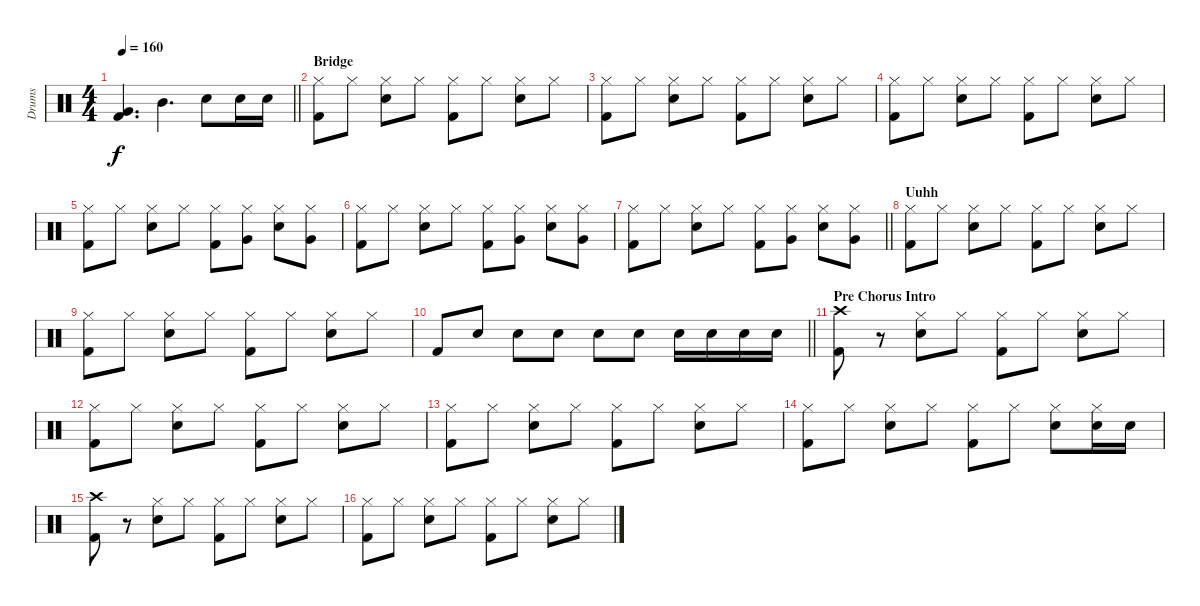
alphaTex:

\track ("Drums" "Drums") {instrument percussion}
\staff {score}
\articulation defaults
\ts (4 4)
\tempo 160
\clef neutral
\barLineRight lightlight
\ks c
("Very Low Tom (hit)" "Kick (hit) 2").4{d dy f} "Mid Tom (hit)".4{d} "Electric Snare (hit)".8 "Electric Snare (hit)".16 "Electric Snare (hit)".16 |
\section ("" "Bridge")
("Hi-Hat (closed)" "Kick (hit) 2").8 "Hi-Hat (closed)".8 ("Hi-Hat (closed)" "Electric Snare (hit)").8 "Hi-Hat (closed)".8 ("Hi-Hat (closed)" "Kick (hit) 2").8 "Hi-Hat (closed)".8 ("Hi-Hat (closed)" "Electric Snare (hit)").8 "Hi-Hat (closed)".8 |
("Hi-Hat (closed)" "Kick (hit) 2").8 "Hi-Hat (closed)".8 ("Hi-Hat (closed)" "Electric Snare (hit)").8 "Hi-Hat (closed)".8 ("Hi-Hat (closed)" "Kick (hit) 2").8 "Hi-Hat (closed)".8 ("Hi-Hat (closed)" "Electric Snare (hit)").8 "Hi-Hat (closed)".8 |
("Hi-Hat (closed)" "Kick (hit) 2").8 "Hi-Hat (closed)".8 ("Hi-Hat (closed)" "Electric Snare (hit)").8 "Hi-Hat (closed)".8 ("Hi-Hat (closed)" "Kick (hit) 2").8 "Hi-Hat (closed)".8 ("Hi-Hat (closed)" "Electric Snare (hit)").8 "Hi-Hat (closed)".8 |
("Hi-Hat (closed)" "Kick (hit) 2").8 "Hi-Hat (closed)".8 ("Hi-Hat (closed)" "Electric Snare (hit)").8 "Hi-Hat (closed)".8 ("Hi-Hat (closed)" "Kick (hit) 2").8 ("Hi-Hat (closed)" "Very Low Tom (hit)").8 ("Hi-Hat (closed)" "Electric Snare (hit)").8 ("Hi-Hat (closed)" "Very Low Tom (hit)").8 |
("Hi-Hat (closed)" "Kick (hit) 2").8 "Hi-Hat (closed)".8 ("Hi-Hat (closed)" "Electric Snare (hit)").8 "Hi-Hat (closed)".8 ("Hi-Hat (closed)" "Kick (hit) 2").8 ("Hi-Hat (closed)" "Very Low Tom (hit)").8 ("Hi-Hat (closed)" "Electric Snare (hit)").8 ("Hi-Hat (closed)" "Very Low Tom (hit)").8 |
\barLineRight lightlight
("Hi-Hat (closed)" "Kick (hit) 2").8 "Hi-Hat (closed)".8 ("Hi-Hat (closed)" "Electric Snare (hit)").8 "Hi-Hat (closed)".8 ("Hi-Hat (closed)" "Kick (hit) 2").8 ("Hi-Hat (closed)" "Very Low Tom (hit)").8 ("Hi-Hat (closed)" "Electric Snare (hit)").8 ("Hi-Hat (closed)" "Very Low Tom (hit)").8 |
\section ("" "Uuhh")
("Hi-Hat (closed)" "Kick (hit) 2").8 "Hi-Hat (closed)".8 ("Hi-Hat (closed)" "Electric Snare (hit)").8 "Hi-Hat (closed)".8 ("Hi-Hat (closed)" "Kick (hit) 2").8 "Hi-Hat (closed)".8 ("Hi-Hat (closed)" "Electric Snare (hit)").8 "Hi-Hat (closed)".8 |
("Hi-Hat (closed)" "Kick (hit) 2").8 "Hi-Hat (closed)".8 ("Hi-Hat (closed)" "Electric Snare (hit)").8 "Hi-Hat (closed)".8 ("Hi-Hat (closed)" "Kick (hit) 2").8 "Hi-Hat (closed)".8 ("Hi-Hat (closed)" "Electric Snare (hit)").8 "Hi-Hat (closed)".8 |
\barLineRight lightlight "Kick (hit) 2".8 "Electric Snare (hit)".8 "Electric Snare (hit)".8 "Electric Snare (hit)".8 "Electric Snare (hit)".8 "Electric Snare (hit)".8 "Electric Snare (hit)".16 "Electric Snare (hit)".16 "Electric Snare (hit)".16 "Electric Snare (hit)".16
|
\section ("" "Pre Chorus Intro")
("Crash high (hit)" "Kick (hit) 2").8 r.8 ("Hi-Hat (closed)" "Electric Snare (hit)").8 "Hi-Hat (closed)".8 ("Hi-Hat (closed)" "Kick (hit) 2").8 "Hi-Hat (closed)".8 ("Hi-Hat (closed)" "Electric Snare (hit)").8 "Hi-Hat (closed)".8 |
("Hi-Hat (closed)" "Kick (hit) 2").8 "Hi-Hat (closed)".8 ("Hi-Hat (closed)" "Electric Snare (hit)").8 "Hi-Hat (closed)".8 ("Hi-Hat (closed)" "Kick (hit) 2").8 "Hi-Hat (closed)".8 ("Hi-Hat (closed)" "Electric Snare (hit)").8 "Hi-Hat (closed)".8 |
("Hi-Hat (closed)" "Kick (hit) 2").8 "Hi-Hat (closed)".8 ("Hi-Hat (closed)" "Electric Snare (hit)").8 "Hi-Hat (closed)".8 ("Hi-Hat (closed)" "Kick (hit) 2").8 "Hi-Hat (closed)".8 ("Hi-Hat (closed)" "Electric Snare (hit)").8 "Hi-Hat (closed)".8 |
("Hi-Hat (closed)" "Kick (hit) 2").8 "Hi-Hat (closed)".8 ("Hi-Hat (closed)" "Electric Snare (hit)").8 "Hi-Hat (closed)".8 ("Hi-Hat (closed)" "Kick (hit) 2").8 "Hi-Hat (closed)".8 ("Hi-Hat (closed)" "Electric Snare (hit)").8 ("Hi-Hat (closed)" "Electric Snare (hit)").16 "Electric Snare (hit)".16 |
("Crash high (hit)" "Kick (hit) 2").8 r.8 ("Hi-Hat (closed)" "Electric Snare (hit)").8 "Hi-Hat (closed)".8 ("Hi-Hat (closed)" "Kick (hit) 2").8 "Hi-Hat (closed)".8 ("Hi-Hat (closed)" "Electric Snare (hit)").8 "Hi-Hat (closed)".8 |
("Hi-Hat (closed)" "Kick (hit) 2").8 "Hi-Hat (closed)".8 ("Hi-Hat (closed)" "Electric Snare (hit)").8 "Hi-Hat (closed)".8 ("Hi-Hat (closed)" "Kick (hit) 2").8 "Hi-Hat (closed)".8 ("Hi-Hat (closed)" "Electric Snare (hit)").8 "Hi-Hat (closed)".8
